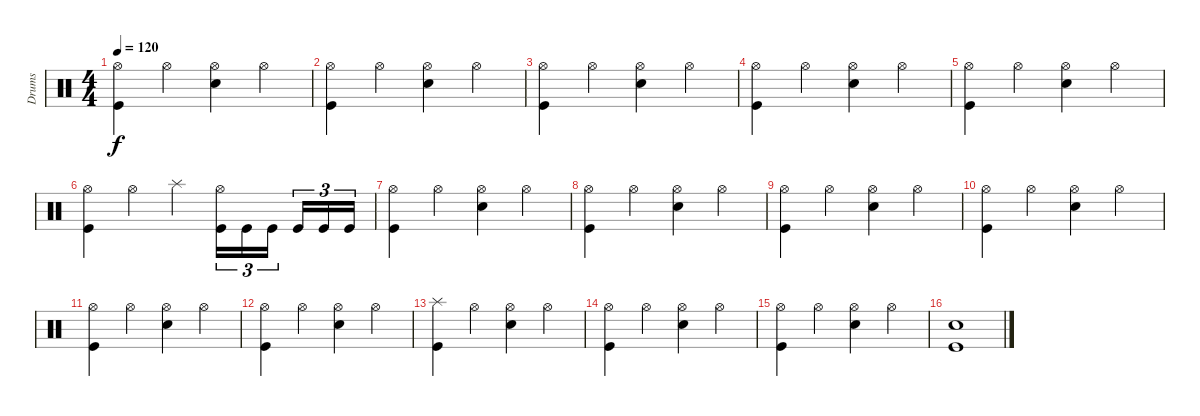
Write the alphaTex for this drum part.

\track ("Drums" "Drums") {instrument percussion}
\staff {score}
\articulation defaults
\ts (4 4)
\tempo 120
\clef neutral
\ks c
("Hi-Hat (open)" "Kick (hit)").4{dy f} "Hi-Hat (open)".4 ("Hi-Hat (open)" "Snare (hit) 2").4 "Hi-Hat (open)".4 |
("Hi-Hat (open)" "Kick (hit)").4 "Hi-Hat (open)".4 ("Hi-Hat (open)" "Snare (hit) 2").4 "Hi-Hat (open)".4 |
("Hi-Hat (open)" "Kick (hit)").4 "Hi-Hat (open)".4 ("Hi-Hat (open)" "Snare (hit) 2").4 "Hi-Hat (open)".4 |
("Hi-Hat (open)" "Kick (hit)").4 "Hi-Hat (open)".4 ("Hi-Hat (open)" "Snare (hit) 2").4 "Hi-Hat (open)".4 |
("Hi-Hat (open)" "Kick (hit)").4 "Hi-Hat (open)".4 ("Hi-Hat (open)" "Snare (hit) 2").4 "Hi-Hat (open)".4 |
("Hi-Hat (open)" "Kick (hit)").4 "Hi-Hat (open)".4 "Splash (hit)".4 ("Hi-Hat (open)" "Kick (hit)").16{tu (3 2)} "Kick (hit)".16{tu (3 2)} "Kick (hit)".16{tu (3 2)} "Kick (hit)".16{tu (3 2)} "Kick (hit)".16{tu (3 2)} "Kick (hit)".16{tu (3 2)} |
("Hi-Hat (open)" "Kick (hit)").4 "Hi-Hat (open)".4 ("Hi-Hat (open)" "Snare (hit) 2").4 "Hi-Hat (open)".4 |
("Hi-Hat (open)" "Kick (hit)").4 "Hi-Hat (open)".4 ("Hi-Hat (open)" "Snare (hit) 2").4 "Hi-Hat (open)".4 |
("Hi-Hat (open)" "Kick (hit)").4 "Hi-Hat (open)".4 ("Hi-Hat (open)" "Snare (hit) 2").4 "Hi-Hat (open)".4 |
("Hi-Hat (open)" "Kick (hit)").4 "Hi-Hat (open)".4 ("Hi-Hat (open)" "Snare (hit) 2").4 "Hi-Hat (open)".4 |
("Hi-Hat (open)" "Kick (hit)").4 "Hi-Hat (open)".4 ("Hi-Hat (open)" "Snare (hit) 2").4 "Hi-Hat (open)".4 |
("Hi-Hat (open)" "Kick (hit)").4 "Hi-Hat (open)".4 ("Hi-Hat (open)" "Snare (hit) 2").4 "Hi-Hat (open)".4 |
("Splash (hit)" "Kick (hit)").4 "Hi-Hat (open)".4 ("Hi-Hat (open)" "Snare (hit) 2").4 "Hi-Hat (open)".4 |
("Hi-Hat (open)" "Kick (hit)").4 "Hi-Hat (open)".4 ("Hi-Hat (open)" "Snare (hit) 2").4 "Hi-Hat (open)".4 |
("Hi-Hat (open)" "Kick (hit)").4 "Hi-Hat (open)".4 ("Hi-Hat (open)" "Snare (hit) 2").4 "Hi-Hat (open)".4 |
("Snare (hit) 2" "Kick (hit)").1
